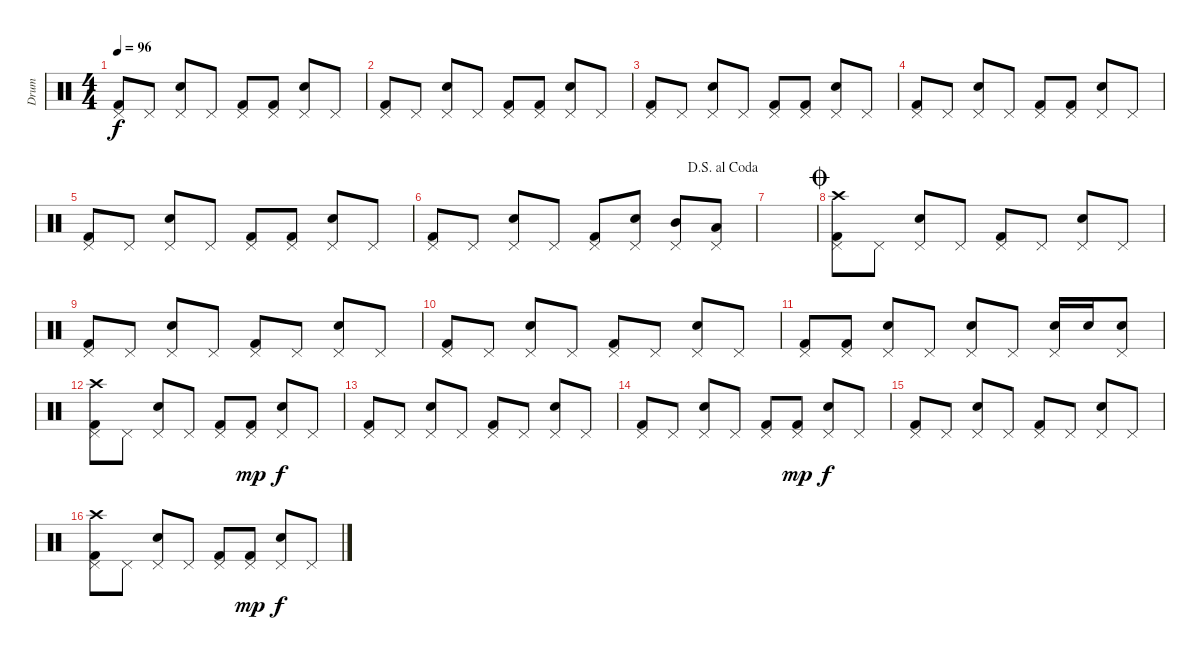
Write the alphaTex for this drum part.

\track ("Drum" "Drum") {instrument percussion}
\staff {score}
\articulation defaults
\ts (4 4)
\tempo 96
\clef neutral
\ks c
("Pedal Hi-Hat (hit)" "Kick (hit) 2").8{dy f} "Pedal Hi-Hat (hit)".8 ("Pedal Hi-Hat (hit)" "Snare (hit) 2").8 "Pedal Hi-Hat (hit)".8 ("Pedal Hi-Hat (hit)" "Kick (hit) 2").8 ("Pedal Hi-Hat (hit)" "Kick (hit) 2").8 ("Pedal Hi-Hat (hit)" "Snare (hit) 2").8 "Pedal Hi-Hat (hit)".8 |
("Pedal Hi-Hat (hit)" "Kick (hit) 2").8 "Pedal Hi-Hat (hit)".8 ("Pedal Hi-Hat (hit)" "Snare (hit) 2").8 "Pedal Hi-Hat (hit)".8 ("Pedal Hi-Hat (hit)" "Kick (hit) 2").8 ("Pedal Hi-Hat (hit)" "Kick (hit) 2").8 ("Pedal Hi-Hat (hit)" "Snare (hit) 2").8 "Pedal Hi-Hat (hit)".8 |
("Pedal Hi-Hat (hit)" "Kick (hit) 2").8 "Pedal Hi-Hat (hit)".8 ("Pedal Hi-Hat (hit)" "Snare (hit) 2").8 "Pedal Hi-Hat (hit)".8 ("Pedal Hi-Hat (hit)" "Kick (hit) 2").8 ("Pedal Hi-Hat (hit)" "Kick (hit) 2").8 ("Pedal Hi-Hat (hit)" "Snare (hit) 2").8 "Pedal Hi-Hat (hit)".8 |
("Pedal Hi-Hat (hit)" "Kick (hit) 2").8 "Pedal Hi-Hat (hit)".8 ("Pedal Hi-Hat (hit)" "Snare (hit) 2").8 "Pedal Hi-Hat (hit)".8 ("Pedal Hi-Hat (hit)" "Kick (hit) 2").8 ("Pedal Hi-Hat (hit)" "Kick (hit) 2").8 ("Pedal Hi-Hat (hit)" "Snare (hit) 2").8 "Pedal Hi-Hat (hit)".8 |
("Pedal Hi-Hat (hit)" "Kick (hit) 2").8 "Pedal Hi-Hat (hit)".8 ("Pedal Hi-Hat (hit)" "Snare (hit) 2").8 "Pedal Hi-Hat (hit)".8 ("Pedal Hi-Hat (hit)" "Kick (hit) 2").8 ("Pedal Hi-Hat (hit)" "Kick (hit) 2").8 ("Pedal Hi-Hat (hit)" "Snare (hit) 2").8 "Pedal Hi-Hat (hit)".8 |
\jump dalsegnoalcoda
("Pedal Hi-Hat (hit)" "Kick (hit) 2").8 "Pedal Hi-Hat (hit)".8 ("Pedal Hi-Hat (hit)" "Snare (hit) 2").8 "Pedal Hi-Hat (hit)".8 ("Pedal Hi-Hat (hit)" "Kick (hit) 2").8 ("Pedal Hi-Hat (hit)" "Snare (hit) 2").8 ("Pedal Hi-Hat (hit)" "Mid Tom (hit)").8 ("Pedal Hi-Hat (hit)" "Low Tom (hit)").8 |
|
\jump coda
("Pedal Hi-Hat (hit)" "Crash high (hit)" "Kick (hit) 2").8 "Pedal Hi-Hat (hit)".8 ("Pedal Hi-Hat (hit)" "Snare (hit) 2").8 "Pedal Hi-Hat (hit)".8 ("Pedal Hi-Hat (hit)" "Kick (hit) 2").8 "Pedal Hi-Hat (hit)".8 ("Pedal Hi-Hat (hit)" "Snare (hit) 2").8 "Pedal Hi-Hat (hit)".8 |
("Pedal Hi-Hat (hit)" "Kick (hit) 2").8 "Pedal Hi-Hat (hit)".8 ("Pedal Hi-Hat (hit)" "Snare (hit) 2").8 "Pedal Hi-Hat (hit)".8 ("Pedal Hi-Hat (hit)" "Kick (hit) 2").8 "Pedal Hi-Hat (hit)".8 ("Pedal Hi-Hat (hit)" "Snare (hit) 2").8 "Pedal Hi-Hat (hit)".8 |
("Pedal Hi-Hat (hit)" "Kick (hit) 2").8 "Pedal Hi-Hat (hit)".8 ("Pedal Hi-Hat (hit)" "Snare (hit) 2").8 "Pedal Hi-Hat (hit)".8 ("Pedal Hi-Hat (hit)" "Kick (hit) 2").8 "Pedal Hi-Hat (hit)".8 ("Pedal Hi-Hat (hit)" "Snare (hit) 2").8 "Pedal Hi-Hat (hit)".8 |
("Pedal Hi-Hat (hit)" "Kick (hit) 2").8 ("Pedal Hi-Hat (hit)" "Kick (hit) 2").8 ("Pedal Hi-Hat (hit)" "Snare (hit) 2").8 "Pedal Hi-Hat (hit)".8 ("Pedal Hi-Hat (hit)" "Snare (hit) 2").8 "Pedal Hi-Hat (hit)".8 ("Pedal Hi-Hat (hit)" "Snare (hit) 2").16 "Snare (hit) 2".16 ("Pedal Hi-Hat (hit)" "Snare (hit) 2").8 |
("Pedal Hi-Hat (hit)" "Crash high (hit)" "Kick (hit) 2").8 "Pedal Hi-Hat (hit)".8 ("Pedal Hi-Hat (hit)" "Snare (hit) 2").8 "Pedal Hi-Hat (hit)".8 ("Pedal Hi-Hat (hit)" "Kick (hit) 2").8 ("Pedal Hi-Hat (hit)" "Kick (hit) 2").8{dy mp} ("Pedal Hi-Hat (hit)" "Snare (hit) 2").8{dy f} "Pedal Hi-Hat (hit)".8 |
("Pedal Hi-Hat (hit)" "Kick (hit) 2").8 "Pedal Hi-Hat (hit)".8 ("Pedal Hi-Hat (hit)" "Snare (hit) 2").8 "Pedal Hi-Hat (hit)".8 ("Pedal Hi-Hat (hit)" "Kick (hit) 2").8 "Pedal Hi-Hat (hit)".8 ("Pedal Hi-Hat (hit)" "Snare (hit) 2").8 "Pedal Hi-Hat (hit)".8 |
("Pedal Hi-Hat (hit)" "Kick (hit) 2").8 "Pedal Hi-Hat (hit)".8 ("Pedal Hi-Hat (hit)" "Snare (hit) 2").8 "Pedal Hi-Hat (hit)".8 ("Pedal Hi-Hat (hit)" "Kick (hit) 2").8 ("Pedal Hi-Hat (hit)" "Kick (hit) 2").8{dy mp} ("Pedal Hi-Hat (hit)" "Snare (hit) 2").8{dy f} "Pedal Hi-Hat (hit)".8 |
("Pedal Hi-Hat (hit)" "Kick (hit) 2").8 "Pedal Hi-Hat (hit)".8 ("Pedal Hi-Hat (hit)" "Snare (hit) 2").8 "Pedal Hi-Hat (hit)".8 ("Pedal Hi-Hat (hit)" "Kick (hit) 2").8 "Pedal Hi-Hat (hit)".8 ("Pedal Hi-Hat (hit)" "Snare (hit) 2").8 "Pedal Hi-Hat (hit)".8 |
("Pedal Hi-Hat (hit)" "Crash high (hit)" "Kick (hit) 2").8 "Pedal Hi-Hat (hit)".8 ("Pedal Hi-Hat (hit)" "Snare (hit) 2").8 "Pedal Hi-Hat (hit)".8 ("Pedal Hi-Hat (hit)" "Kick (hit) 2").8 ("Pedal Hi-Hat (hit)" "Kick (hit) 2").8{dy mp} ("Pedal Hi-Hat (hit)" "Snare (hit) 2").8{dy f} "Pedal Hi-Hat (hit)".8
